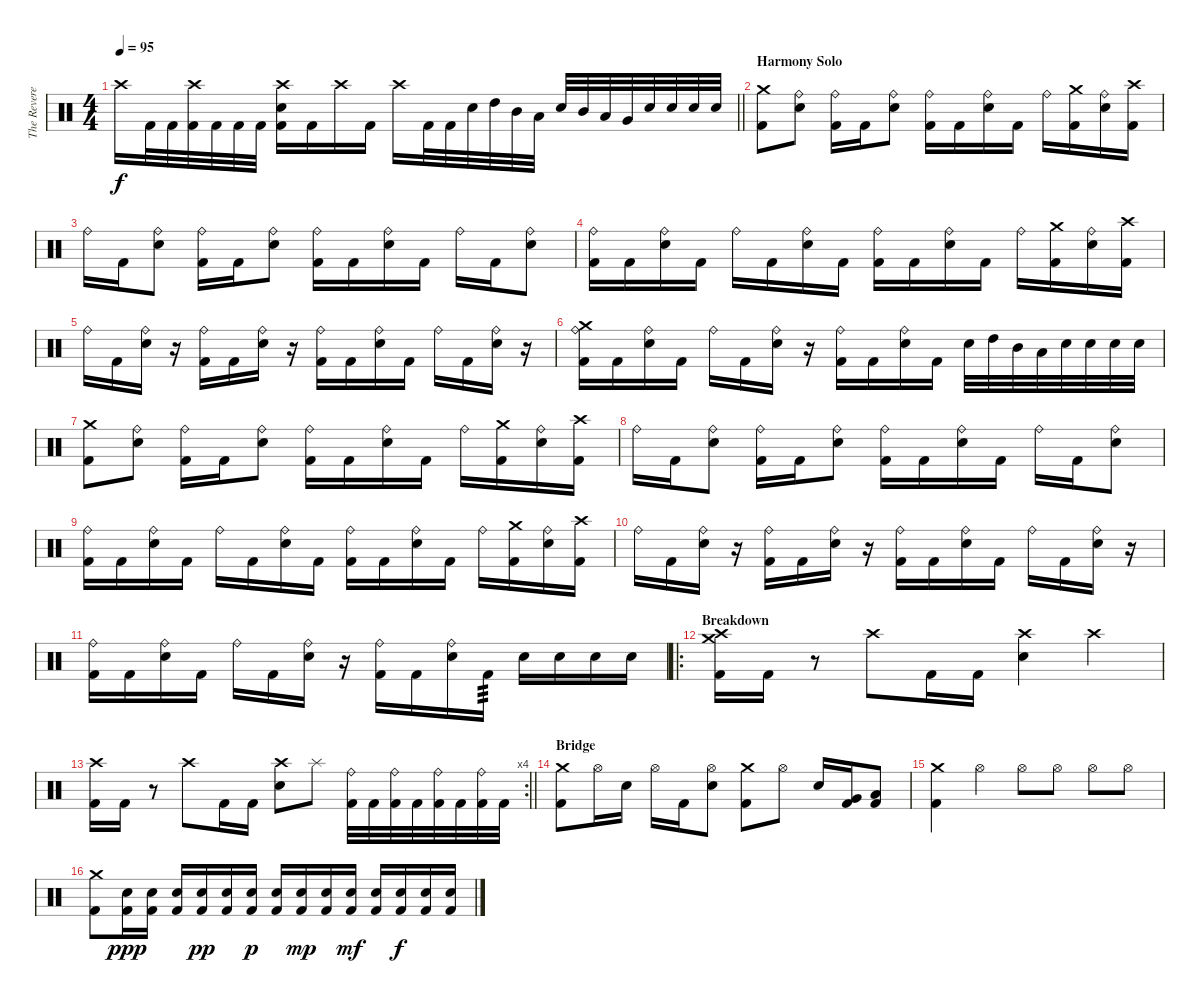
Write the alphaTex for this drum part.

\track ("The Reverend" "The Revere") {instrument percussion}
\staff {score}
\articulation defaults
\ts (4 4)
\tempo 95
\clef neutral
\barLineRight lightlight
\ks c "Crash high (hit)".16{dy f} "Kick (hit) 2".32 "Kick (hit) 2".32
("Crash high (hit)" "Kick (hit) 2").32 "Kick (hit) 2".32 "Kick (hit) 2".32 "Kick (hit) 2".32 ("Crash high (hit)" "Electric Snare (hit)" "Kick (hit) 2").16 "Kick (hit) 2".16 "Crash high (hit)".16 "Kick (hit) 2".16 "Crash high (hit)".16 "Kick (hit) 2".32 "Kick (hit) 2".32 "Electric Snare (hit)".32 "High Tom (hit)".32 "Mid Tom (hit)".32 "Low Tom (hit)".32 "Electric Snare (hit)".32 "Mid Tom (hit)".32 "Low Tom (hit)".32 "Very Low Tom (hit)".32 "Electric Snare (hit)".32 "Electric Snare (hit)".32 "Electric Snare (hit)".32 "Electric Snare (hit)".32 |
\section ("" "Harmony Solo")
("Crash medium (hit)" "Kick (hit) 2").8 ("Ride (bell)" "Electric Snare (hit)").8 ("Ride (bell)" "Kick (hit) 2").16 "Kick (hit) 2".16 ("Ride (bell)" "Electric Snare (hit)").8 ("Ride (bell)" "Kick (hit) 2").16 "Kick (hit) 2".16 ("Ride (bell)" "Electric Snare (hit)").16 "Kick (hit) 2".16 "Ride (bell)".16 ("Crash medium (hit)" "Kick (hit) 2").16 ("Ride (bell)" "Electric Snare (hit)").16 ("Crash high (hit)" "Kick (hit) 2").16 |
"Ride (bell)".16 "Kick (hit) 2".16 ("Ride (bell)" "Electric Snare (hit)").8 ("Ride (bell)" "Kick (hit) 2").16 "Kick (hit) 2".16 ("Ride (bell)" "Electric Snare (hit)").8 ("Ride (bell)" "Kick (hit) 2").16 "Kick (hit) 2".16 ("Ride (bell)" "Electric Snare (hit)").16 "Kick (hit) 2".16 "Ride (bell)".16 "Kick (hit) 2".16 ("Ride (bell)" "Electric Snare (hit)").8 |
("Ride (bell)" "Kick (hit) 2").16 "Kick (hit) 2".16 ("Ride (bell)" "Electric Snare (hit)").16 "Kick (hit) 2".16 "Ride (bell)".16 "Kick (hit) 2".16 ("Ride (bell)" "Electric Snare (hit)").16 "Kick (hit) 2".16 ("Ride (bell)" "Kick (hit) 2").16 "Kick (hit) 2".16 ("Ride (bell)" "Electric Snare (hit)").16 "Kick (hit) 2".16 "Ride (bell)".16 ("Crash medium (hit)" "Kick (hit) 2").16 ("Ride (bell)" "Electric Snare (hit)").16 ("Crash high (hit)" "Kick (hit) 2").16 |
"Ride (bell)".16 "Kick (hit) 2".16 ("Ride (bell)" "Electric Snare (hit)").16 r.16 ("Ride (bell)" "Kick (hit) 2").16 "Kick (hit) 2".16 ("Ride (bell)" "Electric Snare (hit)").16 r.16 ("Ride (bell)" "Kick (hit) 2").16 "Kick (hit) 2".16 ("Ride (bell)" "Electric Snare (hit)").16 "Kick (hit) 2".16 "Ride (bell)".16 "Kick (hit) 2".16 ("Ride (bell)" "Electric Snare (hit)").16 r.16 |
("Crash medium (hit)" "Ride (bell)" "Kick (hit) 2").16 "Kick (hit) 2".16 ("Ride (bell)" "Electric Snare (hit)").16 "Kick (hit) 2".16 "Ride (bell)".16 "Kick (hit) 2".16 ("Ride (bell)" "Electric Snare (hit)").16 r.16 ("Ride (bell)" "Kick (hit) 2").16 "Kick (hit) 2".16 ("Ride (bell)" "Electric Snare (hit)").16 "Kick (hit) 2".16 "Electric Snare (hit)".32 "High Tom (hit)".32 "Mid Tom (hit)".32 "Low Tom (hit)".32 "Electric Snare (hit)".32 "Electric Snare (hit)".32 "Electric Snare (hit)".32 "Electric Snare (hit)".32 |
("Crash medium (hit)" "Kick (hit) 2").8 ("Ride (bell)" "Electric Snare (hit)").8 ("Ride (bell)" "Kick (hit) 2").16 "Kick (hit) 2".16 ("Ride (bell)" "Electric Snare (hit)").8 ("Ride (bell)" "Kick (hit) 2").16 "Kick (hit) 2".16 ("Ride (bell)" "Electric Snare (hit)").16 "Kick (hit) 2".16 "Ride (bell)".16 ("Crash medium (hit)" "Kick (hit) 2").16 ("Ride (bell)" "Electric Snare (hit)").16 ("Crash high (hit)" "Kick (hit) 2").16 |
"Ride (bell)".16 "Kick (hit) 2".16 ("Ride (bell)" "Electric Snare (hit)").8 ("Ride (bell)" "Kick (hit) 2").16 "Kick (hit) 2".16 ("Ride (bell)" "Electric Snare (hit)").8 ("Ride (bell)" "Kick (hit) 2").16 "Kick (hit) 2".16 ("Ride (bell)" "Electric Snare (hit)").16 "Kick (hit) 2".16 "Ride (bell)".16 "Kick (hit) 2".16 ("Ride (bell)" "Electric Snare (hit)").8 |
("Ride (bell)" "Kick (hit) 2").16 "Kick (hit) 2".16 ("Ride (bell)" "Electric Snare (hit)").16 "Kick (hit) 2".16 "Ride (bell)".16 "Kick (hit) 2".16 ("Ride (bell)" "Electric Snare (hit)").16 "Kick (hit) 2".16 ("Ride (bell)" "Kick (hit) 2").16 "Kick (hit) 2".16 ("Ride (bell)" "Electric Snare (hit)").16 "Kick (hit) 2".16 "Ride (bell)".16 ("Crash medium (hit)" "Kick (hit) 2").16 ("Ride (bell)" "Electric Snare (hit)").16 ("Crash high (hit)" "Kick (hit) 2").16 |
"Ride (bell)".16 "Kick (hit) 2".16 ("Ride (bell)" "Electric Snare (hit)").16 r.16 ("Ride (bell)" "Kick (hit) 2").16 "Kick (hit) 2".16 ("Ride (bell)" "Electric Snare (hit)").16 r.16 ("Ride (bell)" "Kick (hit) 2").16 "Kick (hit) 2".16 ("Ride (bell)" "Electric Snare (hit)").16 "Kick (hit) 2".16 "Ride (bell)".16 "Kick (hit) 2".16 ("Ride (bell)" "Electric Snare (hit)").16 r.16 |
("Ride (bell)" "Kick (hit) 2").16 "Kick (hit) 2".16 ("Ride (bell)" "Electric Snare (hit)").16 "Kick (hit) 2".16 "Ride (bell)".16 "Kick (hit) 2".16 ("Ride (bell)" "Electric Snare (hit)").16 r.16 ("Ride (bell)" "Kick (hit) 2").16 "Kick (hit) 2".16 ("Ride (bell)" "Electric Snare (hit)").16 "Kick (hit) 2".16{tp 3} "Electric Snare (hit)".16 "Electric Snare (hit)".16 "Electric Snare (hit)".16 "Electric Snare (hit)".16 |
\ro
\section ("" "Breakdown")
("Crash medium (hit)" "Crash high (hit)" "Kick (hit) 2").16 "Kick (hit) 2".16 r.8 "Crash high (hit)".8 "Kick (hit) 2".16 "Kick (hit) 2".16 ("Crash high (hit)" "Electric Snare (hit)").4 "Crash high (hit)".4 |
\rc 4
\barLineRight lightlight
("Crash high (hit)" "Kick (hit) 2").16 "Kick (hit) 2".16 r.8 "Crash high (hit)".8 "Kick (hit) 2".16 "Kick (hit) 2".16 ("Crash high (hit)" "Electric Snare (hit)").8 "Splash (hit)".8 ("Ride (bell)" "Kick (hit) 2").32 "Kick (hit) 2".32 ("Ride (bell)" "Kick (hit) 2").32 "Kick (hit) 2".32 ("Ride (bell)" "Kick (hit) 2").32 "Kick (hit) 2".32 ("Ride (bell)" "Kick (hit) 2").32 "Kick (hit) 2".32 |
\section ("" "Bridge")
("Crash medium (hit)" "Kick (hit) 2").8 "Hi-Hat (open)".16 "Electric Snare (hit)".16 "Hi-Hat (open)".16 "Kick (hit) 2".16 ("Hi-Hat (open)" "Electric Snare (hit)").8 ("Crash medium (hit)" "Kick (hit) 2").8 "Hi-Hat (open)".8 "Electric Snare (hit)".16 ("Very Low Tom (hit)" "Kick (hit) 2").16 ("Low Floor Tom (hit)" "Kick (hit) 2").8 |
("Crash medium (hit)" "Kick (hit) 2").4 "Hi-Hat (open)".4 "Hi-Hat (open)".8 "Hi-Hat (open)".8 "Hi-Hat (open)".8 "Hi-Hat (open)".8 |
("Crash medium (hit)" "Kick (hit) 2").8 ("Electric Snare (hit)" "Kick (hit) 2").16{dy ppp} ("Electric Snare (hit)" "Kick (hit) 2").16 ("Electric Snare (hit)" "Kick (hit) 2").16 ("Electric Snare (hit)" "Kick (hit) 2").16{dy pp} ("Electric Snare (hit)" "Kick (hit) 2").16 ("Electric Snare (hit)" "Kick (hit) 2").16{dy p} ("Electric Snare (hit)" "Kick (hit) 2").16 ("Electric Snare (hit)" "Kick (hit) 2").16{dy mp} ("Electric Snare (hit)" "Kick (hit) 2").16 ("Electric Snare (hit)" "Kick (hit) 2").16{dy mf} ("Electric Snare (hit)" "Kick (hit) 2").16 ("Electric Snare (hit)" "Kick (hit) 2").16{dy f} ("Electric Snare (hit)" "Kick (hit) 2").16 ("Electric Snare (hit)" "Kick (hit) 2").16
